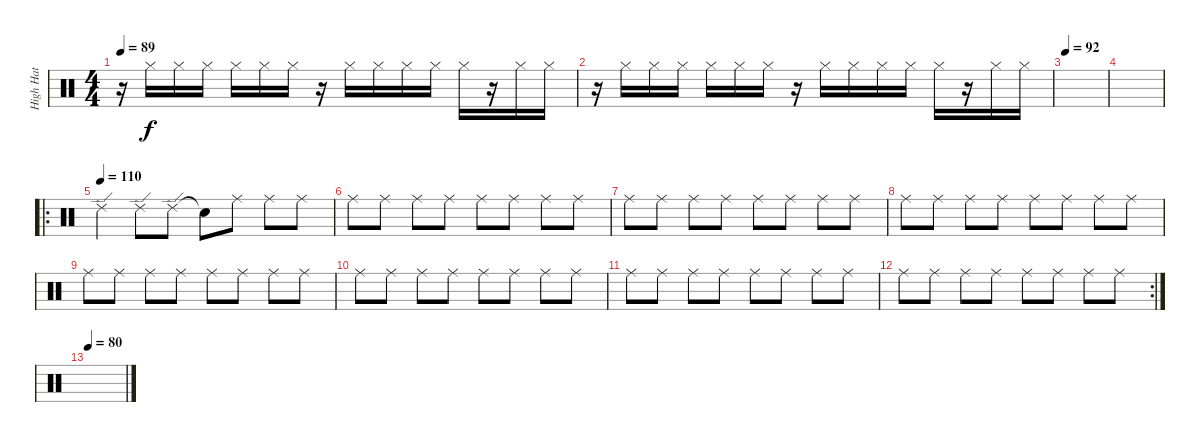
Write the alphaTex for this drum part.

\track ("High Hat" "High Hat") {instrument percussion}
\staff {score}
\articulation defaults
\ts (4 4)
\tempo 89
\clef neutral
\ks c
r.16{dy f} "Hi-Hat (closed)".16 "Hi-Hat (closed)".16 "Hi-Hat (closed)".16 "Hi-Hat (closed)".16 "Hi-Hat (closed)".16 "Hi-Hat (closed)".16 r.16 "Hi-Hat (closed)".16 "Hi-Hat (closed)".16 "Hi-Hat (closed)".16 "Hi-Hat (closed)".16 "Hi-Hat (closed)".16 r.16 "Hi-Hat (closed)".16 "Hi-Hat (closed)".16 |
r.16 "Hi-Hat (closed)".16 "Hi-Hat (closed)".16 "Hi-Hat (closed)".16 "Hi-Hat (closed)".16 "Hi-Hat (closed)".16 "Hi-Hat (closed)".16 r.16 "Hi-Hat (closed)".16 "Hi-Hat (closed)".16 "Hi-Hat (closed)".16 "Hi-Hat (closed)".16 "Hi-Hat (closed)".16 r.16 "Hi-Hat (closed)".16 "Hi-Hat (closed)".16 |
\tempo 92
|
|
\ro
\tempo (110)
"Ride (edge) 2".4 "Ride (edge) 2".8 "Ride (edge) 2".8 "Snare (hit)"{t}.8 "Ride (middle)".8 "Ride (middle)".8 "Ride (middle)".8 |
"Ride (middle)".8 "Ride (middle)".8 "Ride (middle)".8 "Ride (middle)".8 "Ride (middle)".8 "Ride (middle)".8 "Ride (middle)".8 "Ride (middle)".8 |
"Ride (middle)".8 "Ride (middle)".8 "Ride (middle)".8 "Ride (middle)".8 "Ride (middle)".8 "Ride (middle)".8 "Ride (middle)".8 "Ride (middle)".8 |
"Ride (middle)".8 "Ride (middle)".8 "Ride (middle)".8 "Ride (middle)".8 "Ride (middle)".8 "Ride (middle)".8 "Ride (middle)".8 "Ride (middle)".8 |
"Ride (middle)".8 "Ride (middle)".8 "Ride (middle)".8 "Ride (middle)".8 "Ride (middle)".8 "Ride (middle)".8 "Ride (middle)".8 "Ride (middle)".8 |
"Ride (middle)".8 "Ride (middle)".8 "Ride (middle)".8 "Ride (middle)".8 "Ride (middle)".8 "Ride (middle)".8 "Ride (middle)".8 "Ride (middle)".8 |
"Ride (middle)".8 "Ride (middle)".8 "Ride (middle)".8 "Ride (middle)".8 "Ride (middle)".8 "Ride (middle)".8 "Ride (middle)".8 "Ride (middle)".8 |
\rc 2 "Ride (middle)".8 "Ride (middle)".8 "Ride (middle)".8 "Ride (middle)".8 "Ride (middle)".8 "Ride (middle)".8 "Ride (middle)".8 "Ride (middle)".8
|
\tempo 80
